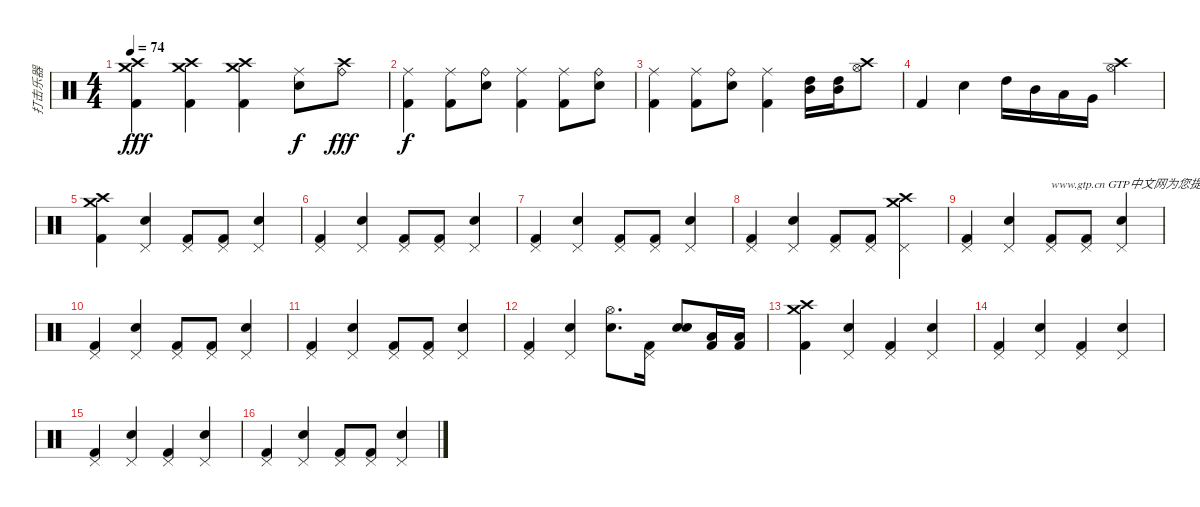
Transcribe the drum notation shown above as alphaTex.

\track ("打击乐器" "打击乐器") {instrument percussion}
\staff {score}
\articulation defaults
\ts (4 4)
\tempo 74
\clef neutral
\ks c
("Kick (hit) 2" "Crash high (hit)" "Crash medium (hit)").4{dy fff} ("Kick (hit) 2" "Crash high (hit)" "Crash medium (hit)").4 ("Kick (hit) 2" "Crash high (hit)" "Crash medium (hit)").4 ("Electric Snare (hit)" "Ride (middle)").8{dy f} ("Crash high (hit)" "Ride (bell)").8{dy fff} |
("Kick (hit) 2" "Ride (middle)").4{dy f} ("Kick (hit) 2" "Ride (middle)").8 ("Electric Snare (hit)" "Ride (bell)").8 ("Kick (hit) 2" "Ride (middle)").4 ("Kick (hit) 2" "Ride (middle)").8 ("Electric Snare (hit)" "Ride (bell)").8 |
("Kick (hit) 2" "Ride (middle)").4 ("Kick (hit) 2" "Ride (middle)").8 ("Electric Snare (hit)" "Ride (bell)").8 ("Kick (hit) 2" "Ride (middle)").4 ("Mid Tom (hit)" "High Tom (hit)").16 ("Mid Tom (hit)" "High Tom (hit)").16 ("Hi-Hat (open)" "Crash high (hit)").8 |
"Kick (hit) 2".4 "Electric Snare (hit)".4 "High Tom (hit)".16 "Mid Tom (hit)".16 "Low Tom (hit)".16 "Very Low Tom (hit)".16 ("Crash high (hit)" "Hi-Hat (open)").4 |
("Kick (hit) 2" "Crash high (hit)" "Crash medium (hit)").4 ("Electric Snare (hit)" "Pedal Hi-Hat (hit)").4 ("Kick (hit) 2" "Pedal Hi-Hat (hit)").8 ("Kick (hit) 2" "Pedal Hi-Hat (hit)").8 ("Electric Snare (hit)" "Pedal Hi-Hat (hit)").4 |
("Kick (hit) 2" "Pedal Hi-Hat (hit)").4 ("Electric Snare (hit)" "Pedal Hi-Hat (hit)").4 ("Kick (hit) 2" "Pedal Hi-Hat (hit)").8 ("Kick (hit) 2" "Pedal Hi-Hat (hit)").8 ("Electric Snare (hit)" "Pedal Hi-Hat (hit)").4 |
("Kick (hit) 2" "Pedal Hi-Hat (hit)").4 ("Electric Snare (hit)" "Pedal Hi-Hat (hit)").4 ("Kick (hit) 2" "Pedal Hi-Hat (hit)").8 ("Kick (hit) 2" "Pedal Hi-Hat (hit)").8 ("Electric Snare (hit)" "Pedal Hi-Hat (hit)").4 |
("Kick (hit) 2" "Pedal Hi-Hat (hit)").4 ("Electric Snare (hit)" "Pedal Hi-Hat (hit)").4 ("Kick (hit) 2" "Pedal Hi-Hat (hit)").8 ("Kick (hit) 2" "Pedal Hi-Hat (hit)").8 ("Crash high (hit)" "Crash medium (hit)" "Pedal Hi-Hat (hit)").4 |
("Kick (hit) 2" "Pedal Hi-Hat (hit)").4 ("Electric Snare (hit)" "Pedal Hi-Hat (hit)").4 ("Kick (hit) 2" "Pedal Hi-Hat (hit)").8{txt "www.gtp.cn GTP中文网为您提供优秀的谱子"} ("Kick (hit) 2" "Pedal Hi-Hat (hit)").8 ("Electric Snare (hit)" "Pedal Hi-Hat (hit)").4 |
("Kick (hit) 2" "Pedal Hi-Hat (hit)").4 ("Electric Snare (hit)" "Pedal Hi-Hat (hit)").4 ("Kick (hit) 2" "Pedal Hi-Hat (hit)").8 ("Kick (hit) 2" "Pedal Hi-Hat (hit)").8 ("Electric Snare (hit)" "Pedal Hi-Hat (hit)").4 |
("Kick (hit) 2" "Pedal Hi-Hat (hit)").4 ("Electric Snare (hit)" "Pedal Hi-Hat (hit)").4 ("Kick (hit) 2" "Pedal Hi-Hat (hit)").8 ("Kick (hit) 2" "Pedal Hi-Hat (hit)").8 ("Electric Snare (hit)" "Pedal Hi-Hat (hit)").4 |
("Kick (hit) 2" "Pedal Hi-Hat (hit)").4 ("Electric Snare (hit)" "Pedal Hi-Hat (hit)").4 ("Electric Snare (hit)" "Hi-Hat (open)").8{d} ("Kick (hit) 2" "Pedal Hi-Hat (hit)").16 ("Electric Snare (hit)" "Electric Snare (hit)").8 ("Kick (hit) 2" "Low Floor Tom (hit)").16 ("Kick (hit) 2" "Low Floor Tom (hit)").16 |
("Kick (hit) 2" "Crash high (hit)" "Crash medium (hit)").4 ("Electric Snare (hit)" "Pedal Hi-Hat (hit)").4 ("Kick (hit) 2" "Pedal Hi-Hat (hit)").4 ("Electric Snare (hit)" "Pedal Hi-Hat (hit)").4 |
("Kick (hit) 2" "Pedal Hi-Hat (hit)").4 ("Electric Snare (hit)" "Pedal Hi-Hat (hit)").4 ("Kick (hit) 2" "Pedal Hi-Hat (hit)").4 ("Electric Snare (hit)" "Pedal Hi-Hat (hit)").4 |
("Kick (hit) 2" "Pedal Hi-Hat (hit)").4 ("Electric Snare (hit)" "Pedal Hi-Hat (hit)").4 ("Kick (hit) 2" "Pedal Hi-Hat (hit)").4 ("Electric Snare (hit)" "Pedal Hi-Hat (hit)").4 |
("Kick (hit) 2" "Pedal Hi-Hat (hit)").4 ("Electric Snare (hit)" "Pedal Hi-Hat (hit)").4 ("Kick (hit) 2" "Pedal Hi-Hat (hit)").8 ("Kick (hit) 2" "Pedal Hi-Hat (hit)").8 ("Electric Snare (hit)" "Pedal Hi-Hat (hit)").4
